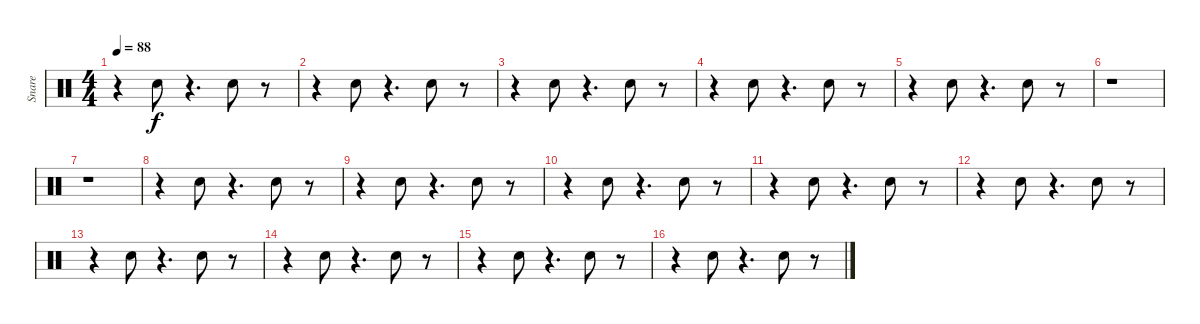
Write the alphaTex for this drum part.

\track ("Snare" "Snare") {instrument percussion}
\staff {score}
\articulation defaults
\ts (4 4)
\tempo 88
\clef neutral
\ks c
r.4{dy f} "Snare (hit) 2".8 r.4{d} "Snare (hit) 2".8 r.8 |
r.4 "Snare (hit) 2".8 r.4{d} "Snare (hit) 2".8 r.8 |
r.4 "Snare (hit) 2".8 r.4{d} "Snare (hit) 2".8 r.8 |
r.4 "Snare (hit) 2".8 r.4{d} "Snare (hit) 2".8 r.8 |
r.4 "Snare (hit) 2".8 r.4{d} "Snare (hit) 2".8 r.8 |
r.1 |
r.1 |
r.4 "Snare (hit) 2".8 r.4{d} "Snare (hit) 2".8 r.8 |
r.4 "Snare (hit) 2".8 r.4{d} "Snare (hit) 2".8 r.8 |
r.4 "Snare (hit) 2".8 r.4{d} "Snare (hit) 2".8 r.8 |
r.4 "Snare (hit) 2".8 r.4{d} "Snare (hit) 2".8 r.8 |
r.4 "Snare (hit) 2".8 r.4{d} "Snare (hit) 2".8 r.8 |
r.4 "Snare (hit) 2".8 r.4{d} "Snare (hit) 2".8 r.8 |
r.4 "Snare (hit) 2".8 r.4{d} "Snare (hit) 2".8 r.8 |
r.4 "Snare (hit) 2".8 r.4{d} "Snare (hit) 2".8 r.8 |
r.4 "Snare (hit) 2".8 r.4{d} "Snare (hit) 2".8 r.8
